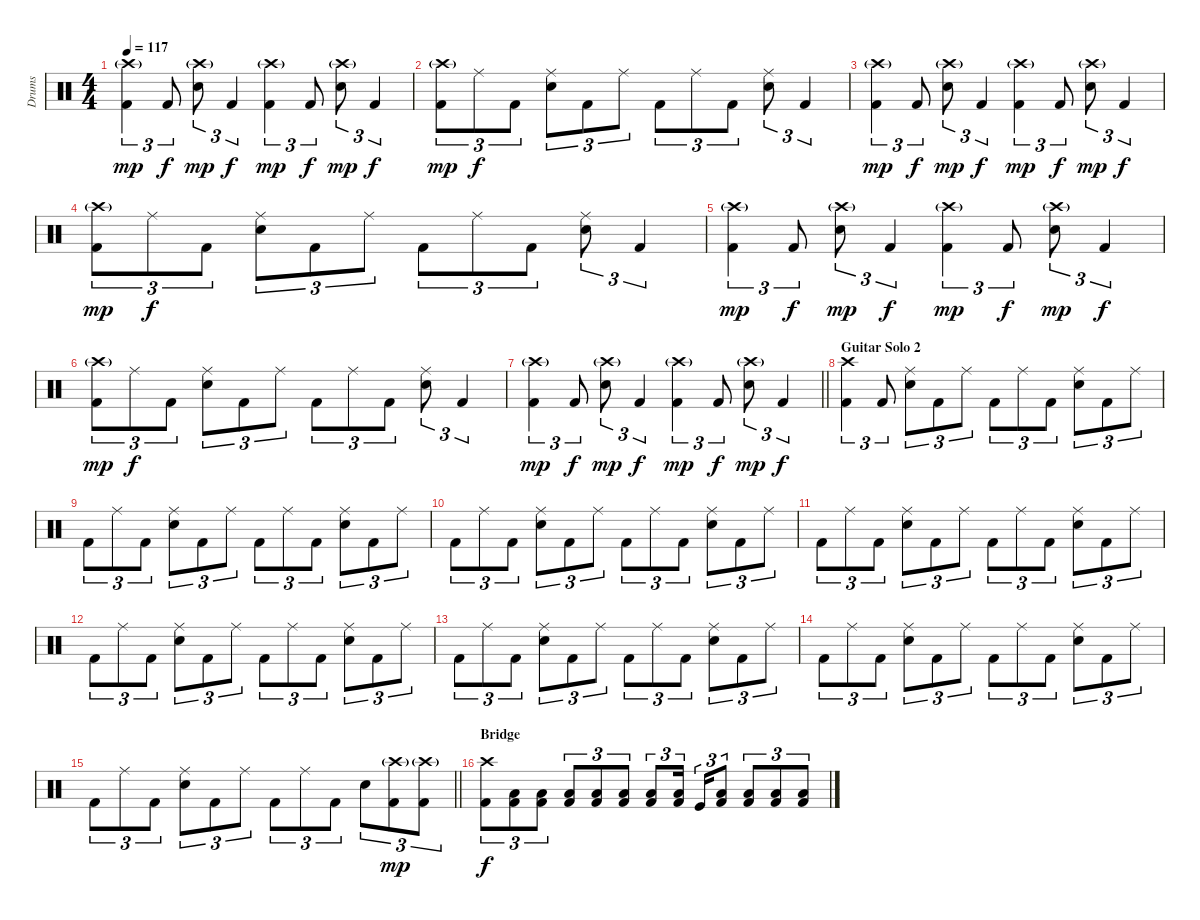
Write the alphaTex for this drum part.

\track ("Drums" "Drums") {instrument percussion}
\staff {score}
\articulation defaults
\ts (4 4)
\tempo 117
\clef neutral
\ks c
("Crash high (hit)"{g} "Kick (hit) 2").4{tu (3 2) dy mp} "Kick (hit) 2".8{tu (3 2) dy f} ("Crash high (hit)"{g} "Electric Snare (hit)").8{tu (3 2) dy mp} "Kick (hit) 2".4{tu (3 2) dy f} ("Crash high (hit)"{g} "Kick (hit) 2").4{tu (3 2) dy mp} "Kick (hit) 2".8{tu (3 2) dy f} ("Crash high (hit)"{g} "Electric Snare (hit)").8{tu (3 2) dy mp} "Kick (hit) 2".4{tu (3 2) dy f} |
("Crash high (hit)"{g} "Kick (hit) 2").8{tu (3 2) dy mp} "Ride (middle)".8{tu (3 2) dy f} "Kick (hit) 2".8{tu (3 2)} ("Ride (middle)" "Electric Snare (hit)").8{tu (3 2)} "Kick (hit) 2".8{tu (3 2)} "Ride (middle)".8{tu (3 2)} "Kick (hit) 2".8{tu (3 2)} "Ride (middle)".8{tu (3 2)} "Kick (hit) 2".8{tu (3 2)} ("Ride (middle)" "Electric Snare (hit)").8{tu (3 2)} "Kick (hit) 2".4{tu (3 2)} |
("Crash high (hit)"{g} "Kick (hit) 2").4{tu (3 2) dy mp} "Kick (hit) 2".8{tu (3 2) dy f} ("Crash high (hit)"{g} "Electric Snare (hit)").8{tu (3 2) dy mp} "Kick (hit) 2".4{tu (3 2) dy f} ("Crash high (hit)"{g} "Kick (hit) 2").4{tu (3 2) dy mp} "Kick (hit) 2".8{tu (3 2) dy f} ("Crash high (hit)"{g} "Electric Snare (hit)").8{tu (3 2) dy mp} "Kick (hit) 2".4{tu (3 2) dy f} |
("Crash high (hit)"{g} "Kick (hit) 2").8{tu (3 2) dy mp} "Ride (middle)".8{tu (3 2) dy f} "Kick (hit) 2".8{tu (3 2)} ("Ride (middle)" "Electric Snare (hit)").8{tu (3 2)} "Kick (hit) 2".8{tu (3 2)} "Ride (middle)".8{tu (3 2)} "Kick (hit) 2".8{tu (3 2)} "Ride (middle)".8{tu (3 2)} "Kick (hit) 2".8{tu (3 2)} ("Ride (middle)" "Electric Snare (hit)").8{tu (3 2)} "Kick (hit) 2".4{tu (3 2)} |
("Crash high (hit)"{g} "Kick (hit) 2").4{tu (3 2) dy mp} "Kick (hit) 2".8{tu (3 2) dy f} ("Crash high (hit)"{g} "Electric Snare (hit)").8{tu (3 2) dy mp} "Kick (hit) 2".4{tu (3 2) dy f} ("Crash high (hit)"{g} "Kick (hit) 2").4{tu (3 2) dy mp} "Kick (hit) 2".8{tu (3 2) dy f} ("Crash high (hit)"{g} "Electric Snare (hit)").8{tu (3 2) dy mp} "Kick (hit) 2".4{tu (3 2) dy f} |
("Crash high (hit)"{g} "Kick (hit) 2").8{tu (3 2) dy mp} "Ride (middle)".8{tu (3 2) dy f} "Kick (hit) 2".8{tu (3 2)} ("Ride (middle)" "Electric Snare (hit)").8{tu (3 2)} "Kick (hit) 2".8{tu (3 2)} "Ride (middle)".8{tu (3 2)} "Kick (hit) 2".8{tu (3 2)} "Ride (middle)".8{tu (3 2)} "Kick (hit) 2".8{tu (3 2)} ("Ride (middle)" "Electric Snare (hit)").8{tu (3 2)} "Kick (hit) 2".4{tu (3 2)} |
\barLineRight lightlight
("Crash high (hit)"{g} "Kick (hit) 2").4{tu (3 2) dy mp} "Kick (hit) 2".8{tu (3 2) dy f} ("Crash high (hit)"{g} "Electric Snare (hit)").8{tu (3 2) dy mp} "Kick (hit) 2".4{tu (3 2) dy f} ("Crash high (hit)"{g} "Kick (hit) 2").4{tu (3 2) dy mp} "Kick (hit) 2".8{tu (3 2) dy f} ("Crash high (hit)"{g} "Electric Snare (hit)").8{tu (3 2) dy mp} "Kick (hit) 2".4{tu (3 2) dy f} |
\section ("" "Guitar Solo 2")
("Crash high (hit)" "Kick (hit) 2").4{tu (3 2)} "Kick (hit) 2".8{tu (3 2)} ("Ride (middle)" "Electric Snare (hit)").8{tu (3 2)} "Kick (hit) 2".8{tu (3 2)} "Ride (middle)".8{tu (3 2)} "Kick (hit) 2".8{tu (3 2)} "Ride (middle)".8{tu (3 2)} "Kick (hit) 2".8{tu (3 2)} ("Ride (middle)" "Electric Snare (hit)").8{tu (3 2)} "Kick (hit) 2".8{tu (3 2)} "Ride (middle)".8{tu (3 2)} |
"Kick (hit) 2".8{tu (3 2)} "Ride (middle)".8{tu (3 2)} "Kick (hit) 2".8{tu (3 2)} ("Ride (middle)" "Electric Snare (hit)").8{tu (3 2)} "Kick (hit) 2".8{tu (3 2)} "Ride (middle)".8{tu (3 2)} "Kick (hit) 2".8{tu (3 2)} "Ride (middle)".8{tu (3 2)} "Kick (hit) 2".8{tu (3 2)} ("Ride (middle)" "Electric Snare (hit)").8{tu (3 2)} "Kick (hit) 2".8{tu (3 2)} "Ride (middle)".8{tu (3 2)} |
"Kick (hit) 2".8{tu (3 2)} "Ride (middle)".8{tu (3 2)} "Kick (hit) 2".8{tu (3 2)} ("Ride (middle)" "Electric Snare (hit)").8{tu (3 2)} "Kick (hit) 2".8{tu (3 2)} "Ride (middle)".8{tu (3 2)} "Kick (hit) 2".8{tu (3 2)} "Ride (middle)".8{tu (3 2)} "Kick (hit) 2".8{tu (3 2)} ("Ride (middle)" "Electric Snare (hit)").8{tu (3 2)} "Kick (hit) 2".8{tu (3 2)} "Ride (middle)".8{tu (3 2)} |
"Kick (hit) 2".8{tu (3 2)} "Ride (middle)".8{tu (3 2)} "Kick (hit) 2".8{tu (3 2)} ("Ride (middle)" "Electric Snare (hit)").8{tu (3 2)} "Kick (hit) 2".8{tu (3 2)} "Ride (middle)".8{tu (3 2)} "Kick (hit) 2".8{tu (3 2)} "Ride (middle)".8{tu (3 2)} "Kick (hit) 2".8{tu (3 2)} ("Ride (middle)" "Electric Snare (hit)").8{tu (3 2)} "Kick (hit) 2".8{tu (3 2)} "Ride (middle)".8{tu (3 2)} |
"Kick (hit) 2".8{tu (3 2)} "Ride (middle)".8{tu (3 2)} "Kick (hit) 2".8{tu (3 2)} ("Ride (middle)" "Electric Snare (hit)").8{tu (3 2)} "Kick (hit) 2".8{tu (3 2)} "Ride (middle)".8{tu (3 2)} "Kick (hit) 2".8{tu (3 2)} "Ride (middle)".8{tu (3 2)} "Kick (hit) 2".8{tu (3 2)} ("Ride (middle)" "Electric Snare (hit)").8{tu (3 2)} "Kick (hit) 2".8{tu (3 2)} "Ride (middle)".8{tu (3 2)} |
"Kick (hit) 2".8{tu (3 2)} "Ride (middle)".8{tu (3 2)} "Kick (hit) 2".8{tu (3 2)} ("Ride (middle)" "Electric Snare (hit)").8{tu (3 2)} "Kick (hit) 2".8{tu (3 2)} "Ride (middle)".8{tu (3 2)} "Kick (hit) 2".8{tu (3 2)} "Ride (middle)".8{tu (3 2)} "Kick (hit) 2".8{tu (3 2)} ("Ride (middle)" "Electric Snare (hit)").8{tu (3 2)} "Kick (hit) 2".8{tu (3 2)} "Ride (middle)".8{tu (3 2)} |
"Kick (hit) 2".8{tu (3 2)} "Ride (middle)".8{tu (3 2)} "Kick (hit) 2".8{tu (3 2)} ("Ride (middle)" "Electric Snare (hit)").8{tu (3 2)} "Kick (hit) 2".8{tu (3 2)} "Ride (middle)".8{tu (3 2)} "Kick (hit) 2".8{tu (3 2)} "Ride (middle)".8{tu (3 2)} "Kick (hit) 2".8{tu (3 2)} ("Ride (middle)" "Electric Snare (hit)").8{tu (3 2)} "Kick (hit) 2".8{tu (3 2)} "Ride (middle)".8{tu (3 2)} |
\barLineRight lightlight "Kick (hit) 2".8{tu (3 2)} "Ride (middle)".8{tu (3 2)} "Kick (hit) 2".8{tu (3 2)}
("Ride (middle)" "Electric Snare (hit)").8{tu (3 2)} "Kick (hit) 2".8{tu (3 2)} "Ride (middle)".8{tu (3 2)} "Kick (hit) 2".8{tu (3 2)} "Ride (middle)".8{tu (3 2)} "Kick (hit) 2".8{tu (3 2)} "Electric Snare (hit)".8{tu (3 2)} ("Crash high (hit)"{g} "Kick (hit) 2").8{tu (3 2) dy mp} ("Crash high (hit)"{g} "Kick (hit) 2").8{tu (3 2)} |
\section ("" "Bridge")
("Crash high (hit)" "Kick (hit) 2").8{tu (3 2) dy f} ("Low Floor Tom (hit)" "Kick (hit) 2").8{tu (3 2)} ("Low Floor Tom (hit)" "Kick (hit) 2").8{tu (3 2)} ("Low Floor Tom (hit)" "Kick (hit) 2").8{tu (3 2)} ("Low Floor Tom (hit)" "Kick (hit) 2").8{tu (3 2)} ("Low Floor Tom (hit)" "Kick (hit) 2").8{tu (3 2)} ("Low Floor Tom (hit)" "Kick (hit) 2").8{tu (3 2)} ("Low Floor Tom (hit)" "Kick (hit) 2").16{tu (3 2) beam splitsecondary} "Kick (hit)".16{tu (3 2)} ("Low Floor Tom (hit)" "Kick (hit) 2").8{tu (3 2)} ("Low Floor Tom (hit)" "Kick (hit) 2").8{tu (3 2)} ("Low Floor Tom (hit)" "Kick (hit) 2").8{tu (3 2)} ("Low Floor Tom (hit)" "Kick (hit) 2").8{tu (3 2)}
